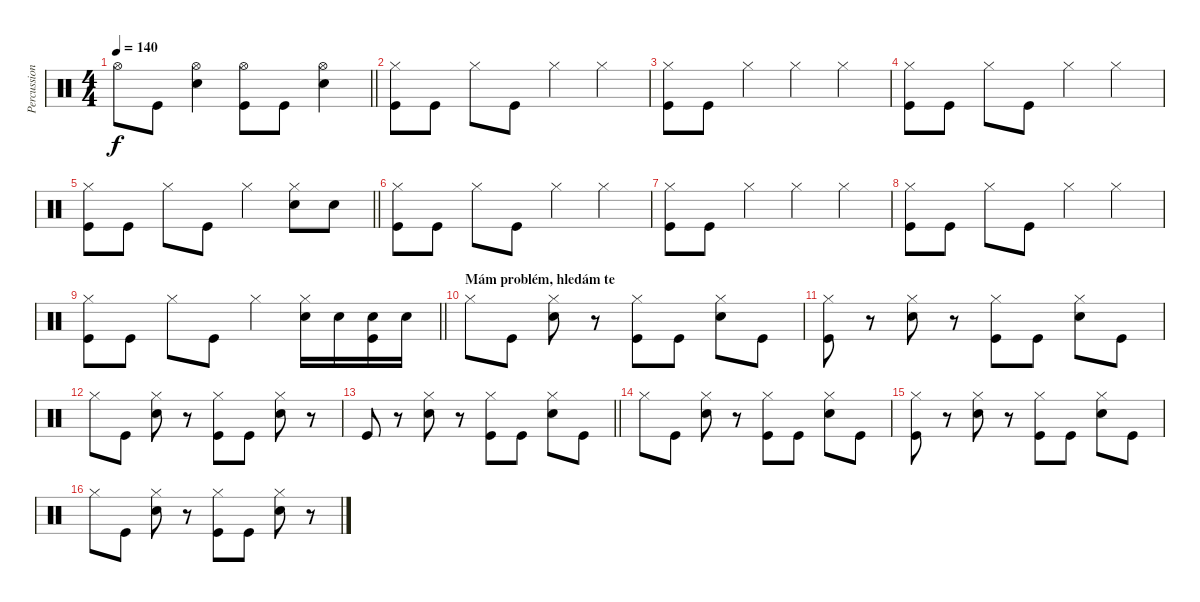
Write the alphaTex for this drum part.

\track ("Percussion" "Percussion") {instrument percussion}
\staff {score}
\articulation defaults
\ts (4 4)
\tempo 140
\clef neutral
\barLineRight lightlight
\ks c "Hi-Hat (open)".8{dy f} "Kick (hit)".8
("Hi-Hat (open)" "Electric Snare (hit)").4 ("Hi-Hat (open)" "Kick (hit)").8 "Kick (hit)".8 ("Hi-Hat (open)" "Electric Snare (hit)").4 |
("Hi-Hat (closed)" "Kick (hit)").8 "Kick (hit)".8 "Hi-Hat (closed)".8 "Kick (hit)".8 "Hi-Hat (closed)".4 "Hi-Hat (closed)".4 |
("Hi-Hat (closed)" "Kick (hit)").8 "Kick (hit)".8 "Hi-Hat (closed)".4 "Hi-Hat (closed)".4 "Hi-Hat (closed)".4 |
("Hi-Hat (closed)" "Kick (hit)").8 "Kick (hit)".8 "Hi-Hat (closed)".8 "Kick (hit)".8 "Hi-Hat (closed)".4 "Hi-Hat (closed)".4 |
\barLineRight lightlight
("Hi-Hat (closed)" "Kick (hit)").8 "Kick (hit)".8 "Hi-Hat (closed)".8 "Kick (hit)".8 "Hi-Hat (closed)".4 ("Hi-Hat (closed)" "Electric Snare (hit)").8 "Electric Snare (hit)".8 |
("Hi-Hat (closed)" "Kick (hit)").8 "Kick (hit)".8 "Hi-Hat (closed)".8 "Kick (hit)".8 "Hi-Hat (closed)".4 "Hi-Hat (closed)".4 |
("Hi-Hat (closed)" "Kick (hit)").8 "Kick (hit)".8 "Hi-Hat (closed)".4 "Hi-Hat (closed)".4 "Hi-Hat (closed)".4 |
("Hi-Hat (closed)" "Kick (hit)").8 "Kick (hit)".8 "Hi-Hat (closed)".8 "Kick (hit)".8 "Hi-Hat (closed)".4 "Hi-Hat (closed)".4 |
\barLineRight lightlight
("Hi-Hat (closed)" "Kick (hit)").8 "Kick (hit)".8 "Hi-Hat (closed)".8 "Kick (hit)".8 "Hi-Hat (closed)".4 ("Hi-Hat (closed)" "Electric Snare (hit)").16 "Electric Snare (hit)".16 ("Electric Snare (hit)" "Kick (hit)").16 "Electric Snare (hit)".16 |
\section ("" "Mám problém, hledám te")
"Hi-Hat (closed)".8 "Kick (hit)".8 ("Electric Snare (hit)" "Hi-Hat (closed)").8 r.8 ("Kick (hit)" "Hi-Hat (closed)").8 "Kick (hit)".8 ("Electric Snare (hit)" "Hi-Hat (closed)").8 "Kick (hit)".8 |
("Kick (hit)" "Hi-Hat (closed)").8 r.8 ("Electric Snare (hit)" "Hi-Hat (closed)").8 r.8 ("Kick (hit)" "Hi-Hat (closed)").8 "Kick (hit)".8 ("Electric Snare (hit)" "Hi-Hat (closed)").8 "Kick (hit)".8 |
"Hi-Hat (closed)".8 "Kick (hit)".8 ("Electric Snare (hit)" "Hi-Hat (closed)").8 r.8 ("Kick (hit)" "Hi-Hat (closed)").8 "Kick (hit)".8 ("Electric Snare (hit)" "Hi-Hat (closed)").8 r.8 |
\barLineRight lightlight "Kick (hit)".8
r.8 ("Electric Snare (hit)" "Hi-Hat (closed)").8 r.8 ("Kick (hit)" "Hi-Hat (closed)").8 "Kick (hit)".8 ("Electric Snare (hit)" "Hi-Hat (closed)").8 "Kick (hit)".8 |
"Hi-Hat (closed)".8 "Kick (hit)".8 ("Electric Snare (hit)" "Hi-Hat (closed)").8 r.8 ("Kick (hit)" "Hi-Hat (closed)").8 "Kick (hit)".8 ("Electric Snare (hit)" "Hi-Hat (closed)").8 "Kick (hit)".8 |
("Kick (hit)" "Hi-Hat (closed)").8 r.8 ("Electric Snare (hit)" "Hi-Hat (closed)").8 r.8 ("Kick (hit)" "Hi-Hat (closed)").8 "Kick (hit)".8 ("Electric Snare (hit)" "Hi-Hat (closed)").8 "Kick (hit)".8 |
"Hi-Hat (closed)".8 "Kick (hit)".8 ("Electric Snare (hit)" "Hi-Hat (closed)").8 r.8 ("Kick (hit)" "Hi-Hat (closed)").8 "Kick (hit)".8 ("Electric Snare (hit)" "Hi-Hat (closed)").8 r.8
